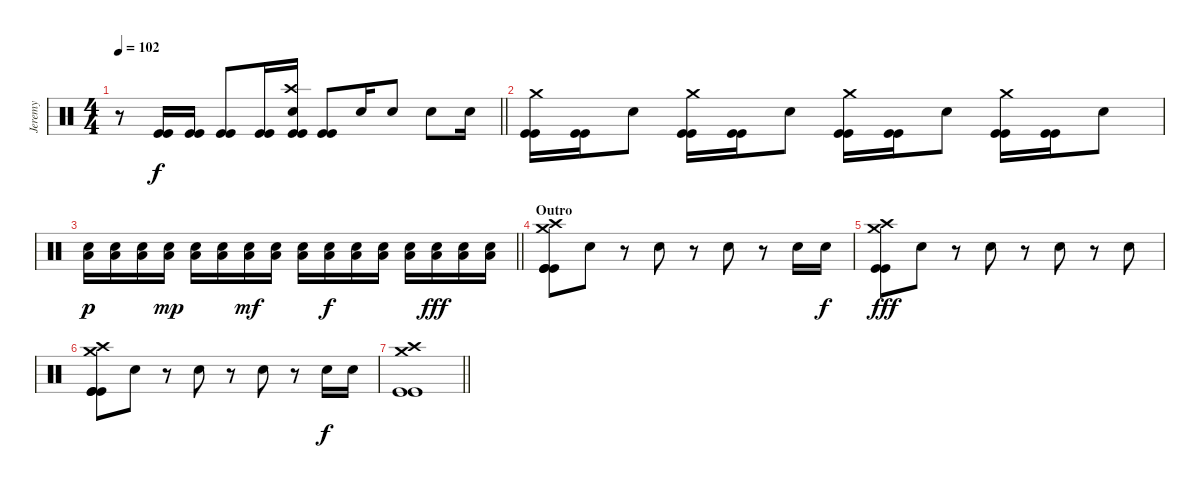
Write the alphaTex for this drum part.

\track ("Jeremy" "Jeremy") {instrument percussion}
\staff {score}
\articulation defaults
\ts (4 4)
\tempo 102
\clef neutral
\barLineRight lightlight
\ks c
r.8{dy f} ("Kick (hit)" "Kick (hit)").16 ("Kick (hit)" "Kick (hit)").16 ("Kick (hit)" "Kick (hit)").8 ("Kick (hit)" "Kick (hit)").16 ("Crash high (hit)" "Electric Snare (hit)" "Kick (hit)" "Kick (hit)").16 ("Kick (hit)" "Kick (hit)").8 "Electric Snare (hit)".16 "Electric Snare (hit)".8 "Electric Snare (hit)".8 "Electric Snare (hit)".16 |
("Crash medium (hit)" "Kick (hit)" "Kick (hit)").16 ("Kick (hit)" "Kick (hit)").16 "Electric Snare (hit)".8 ("Crash medium (hit)" "Kick (hit)" "Kick (hit)").16 ("Kick (hit)" "Kick (hit)").16 "Electric Snare (hit)".8 ("Crash medium (hit)" "Kick (hit)" "Kick (hit)").16 ("Kick (hit)" "Kick (hit)").16 "Electric Snare (hit)".8 ("Crash medium (hit)" "Kick (hit)" "Kick (hit)").16 ("Kick (hit)" "Kick (hit)").16 "Electric Snare (hit)".8 |
\barLineRight lightlight
("Electric Snare (hit)" "Low Tom (hit)").16{dy p} ("Electric Snare (hit)" "Low Tom (hit)").16 ("Electric Snare (hit)" "Low Tom (hit)").16 ("Electric Snare (hit)" "Low Tom (hit)").16{dy mp} ("Electric Snare (hit)" "Low Tom (hit)").16 ("Electric Snare (hit)" "Low Tom (hit)").16 ("Electric Snare (hit)" "Low Tom (hit)").16{dy mf} ("Electric Snare (hit)" "Low Tom (hit)").16 ("Electric Snare (hit)" "Low Tom (hit)").16 ("Electric Snare (hit)" "Low Tom (hit)").16{dy f} ("Electric Snare (hit)" "Low Tom (hit)").16 ("Electric Snare (hit)" "Low Tom (hit)").16 ("Electric Snare (hit)" "Low Tom (hit)").16 ("Electric Snare (hit)" "Low Tom (hit)").16{dy fff} ("Electric Snare (hit)" "Low Tom (hit)").16 ("Low Tom (hit)" "Electric Snare (hit)").16 |
\section ("" "Outro")
("Crash high (hit)" "Crash medium (hit)" "Kick (hit)" "Kick (hit)" "Kick (hit)").8 "Electric Snare (hit)".8 r.8 "Electric Snare (hit)".8 r.8 "Electric Snare (hit)".8 r.8 "Electric Snare (hit)".16 "Electric Snare (hit)".16{dy f} |
("Crash high (hit)" "Crash medium (hit)" "Kick (hit)" "Kick (hit)").8{dy fff} "Electric Snare (hit)".8 r.8 "Electric Snare (hit)".8 r.8 "Electric Snare (hit)".8 r.8 "Electric Snare (hit)".8 |
("Crash high (hit)" "Crash medium (hit)" "Kick (hit)" "Kick (hit)" "Kick (hit)").8 "Electric Snare (hit)".8 r.8 "Electric Snare (hit)".8 r.8 "Electric Snare (hit)".8 r.8 "Electric Snare (hit)".16{dy f} "Electric Snare (hit)".16 |
\barLineRight lightlight
("Crash high (hit)" "Crash medium (hit)" "Kick (hit)" "Kick (hit)").1
